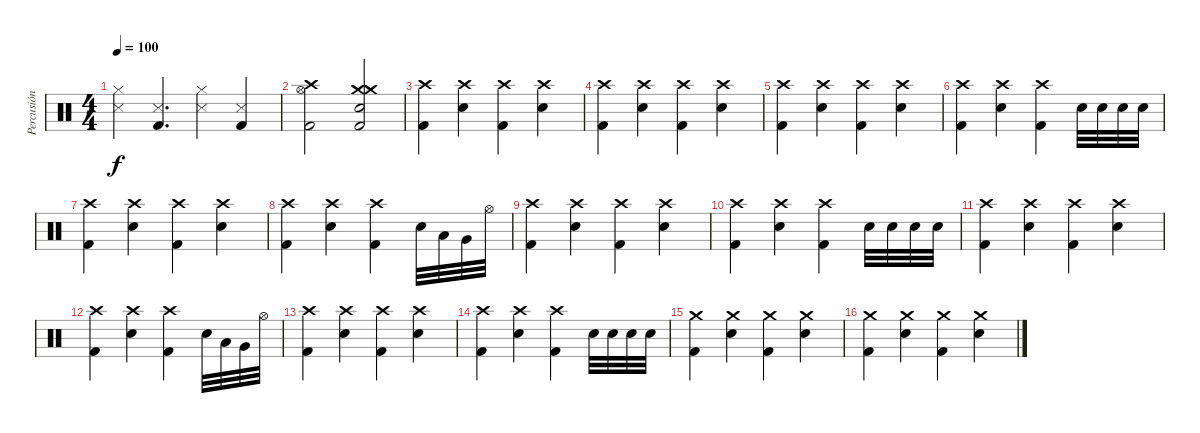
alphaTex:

\track ("Percusión" "Percusión") {instrument percussion}
\staff {score}
\articulation defaults
\ts (4 4)
\tempo 100
\clef neutral
\ks c
("Snare (side stick) 3" "Hi-Hat (closed)").4{dy f} ("Snare (side stick) 3" "Kick (hit) 2").4{d} ("Snare (side stick) 3" "Hi-Hat (closed)").4 ("Snare (side stick) 3" "Kick (hit) 2").4 |
("Crash high (hit)" "Kick (hit) 2" "Hi-Hat (open)").2 ("Kick (hit) 2" "Crash medium (hit)" "Electric Snare (hit)" "Crash medium (hit)").2 |
("Kick (hit) 2" "Crash high (hit)").4 ("Electric Snare (hit)" "Crash high (hit)").4 ("Kick (hit) 2" "Crash high (hit)").4 ("Electric Snare (hit)" "Crash high (hit)").4 |
("Kick (hit) 2" "Crash high (hit)").4 ("Electric Snare (hit)" "Crash high (hit)").4 ("Kick (hit) 2" "Crash high (hit)").4 ("Electric Snare (hit)" "Crash high (hit)").4 |
("Kick (hit) 2" "Crash high (hit)").4 ("Electric Snare (hit)" "Crash high (hit)").4 ("Kick (hit) 2" "Crash high (hit)").4 ("Electric Snare (hit)" "Crash high (hit)").4 |
("Kick (hit) 2" "Crash high (hit)").4 ("Electric Snare (hit)" "Crash high (hit)").4 ("Kick (hit) 2" "Crash high (hit)").4 "Electric Snare (hit)".32 "Electric Snare (hit)".32 "Electric Snare (hit)".32 "Electric Snare (hit)".32 |
("Kick (hit) 2" "Crash high (hit)").4 ("Electric Snare (hit)" "Crash high (hit)").4 ("Kick (hit) 2" "Crash high (hit)").4 ("Electric Snare (hit)" "Crash high (hit)").4 |
("Kick (hit) 2" "Crash high (hit)").4 ("Electric Snare (hit)" "Crash high (hit)").4 ("Kick (hit) 2" "Crash high (hit)").4 "Electric Snare (hit)".32 "Low Floor Tom (hit)".32 "Very Low Tom (hit)".32 "Hi-Hat (open)".32 |
("Kick (hit) 2" "Crash high (hit)").4 ("Electric Snare (hit)" "Crash high (hit)").4 ("Kick (hit) 2" "Crash high (hit)").4 ("Electric Snare (hit)" "Crash high (hit)").4 |
("Kick (hit) 2" "Crash high (hit)").4 ("Electric Snare (hit)" "Crash high (hit)").4 ("Kick (hit) 2" "Crash high (hit)").4 "Electric Snare (hit)".32 "Electric Snare (hit)".32 "Electric Snare (hit)".32 "Electric Snare (hit)".32 |
("Kick (hit) 2" "Crash high (hit)").4 ("Electric Snare (hit)" "Crash high (hit)").4 ("Kick (hit) 2" "Crash high (hit)").4 ("Electric Snare (hit)" "Crash high (hit)").4 |
("Kick (hit) 2" "Crash high (hit)").4 ("Electric Snare (hit)" "Crash high (hit)").4 ("Kick (hit) 2" "Crash high (hit)").4 "Electric Snare (hit)".32 "Low Floor Tom (hit)".32 "Very Low Tom (hit)".32 "Hi-Hat (open)".32 |
("Kick (hit) 2" "Crash high (hit)").4 ("Electric Snare (hit)" "Crash high (hit)").4 ("Kick (hit) 2" "Crash high (hit)").4 ("Electric Snare (hit)" "Crash high (hit)").4 |
("Kick (hit) 2" "Crash high (hit)").4 ("Electric Snare (hit)" "Crash high (hit)").4 ("Kick (hit) 2" "Crash high (hit)").4 "Electric Snare (hit)".32 "Electric Snare (hit)".32 "Electric Snare (hit)".32 "Electric Snare (hit)".32 |
("Kick (hit) 2" "Crash medium (hit)").4 ("Electric Snare (hit)" "Crash medium (hit)").4 ("Kick (hit) 2" "Crash medium (hit)").4 ("Electric Snare (hit)" "Crash medium (hit)").4 |
("Kick (hit) 2" "Crash medium (hit)").4 ("Electric Snare (hit)" "Crash medium (hit)").4 ("Kick (hit) 2" "Crash medium (hit)").4 ("Electric Snare (hit)" "Crash medium (hit)").4
